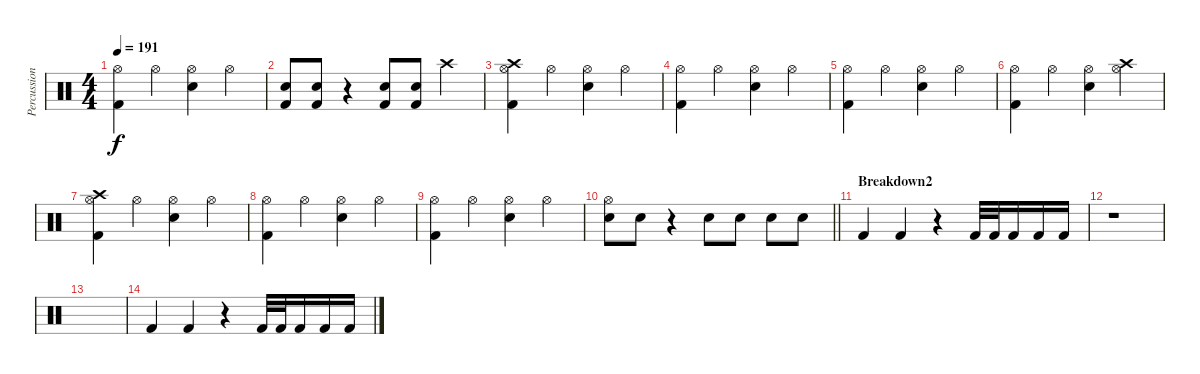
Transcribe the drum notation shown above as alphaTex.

\track ("Percussion" "Percussion") {instrument percussion}
\staff {score}
\articulation defaults
\ts (4 4)
\tempo 191
\clef neutral
\ks c
("Hi-Hat (open)" "Kick (hit) 2").4{dy f} "Hi-Hat (open)".4 ("Hi-Hat (open)" "Snare (hit) 2").4 "Hi-Hat (open)".4 |
("Kick (hit) 2" "Snare (hit) 2").8 ("Kick (hit) 2" "Snare (hit) 2").8 r.4 ("Kick (hit) 2" "Snare (hit) 2").8 ("Kick (hit) 2" "Snare (hit) 2").8 "Crash high (hit)".4 |
("Hi-Hat (open)" "Crash high (hit)" "Kick (hit) 2").4 "Hi-Hat (open)".4 ("Hi-Hat (open)" "Snare (hit) 2").4 "Hi-Hat (open)".4 |
("Hi-Hat (open)" "Kick (hit) 2").4 "Hi-Hat (open)".4 ("Hi-Hat (open)" "Snare (hit) 2").4 "Hi-Hat (open)".4 |
("Hi-Hat (open)" "Kick (hit) 2").4 "Hi-Hat (open)".4 ("Hi-Hat (open)" "Snare (hit) 2").4 "Hi-Hat (open)".4 |
("Hi-Hat (open)" "Kick (hit) 2").4 "Hi-Hat (open)".4 ("Hi-Hat (open)" "Snare (hit) 2").4 ("Hi-Hat (open)" "Crash high (hit)").4 |
("Hi-Hat (open)" "Crash high (hit)" "Kick (hit) 2").4 "Hi-Hat (open)".4 ("Hi-Hat (open)" "Snare (hit) 2").4 "Hi-Hat (open)".4 |
("Hi-Hat (open)" "Kick (hit) 2").4 "Hi-Hat (open)".4 ("Hi-Hat (open)" "Snare (hit) 2").4 "Hi-Hat (open)".4 |
("Hi-Hat (open)" "Kick (hit) 2").4 "Hi-Hat (open)".4 ("Hi-Hat (open)" "Snare (hit) 2").4 "Hi-Hat (open)".4 |
\barLineRight lightlight
("Hi-Hat (open)" "Snare (hit) 2").8 "Snare (hit) 2".8 r.4 "Snare (hit) 2".8 "Snare (hit) 2".8 "Snare (hit) 2".8 "Snare (hit) 2".8 |
\section ("" "Breakdown2")
"Kick (hit) 2".4 "Kick (hit) 2".4 r.4 "Kick (hit) 2".32 "Kick (hit) 2".32 "Kick (hit) 2".16 "Kick (hit) 2".16 "Kick (hit) 2".16 |
r.1 |
|
"Kick (hit) 2".4 "Kick (hit) 2".4 r.4 "Kick (hit) 2".32 "Kick (hit) 2".32 "Kick (hit) 2".16 "Kick (hit) 2".16 "Kick (hit) 2".16
